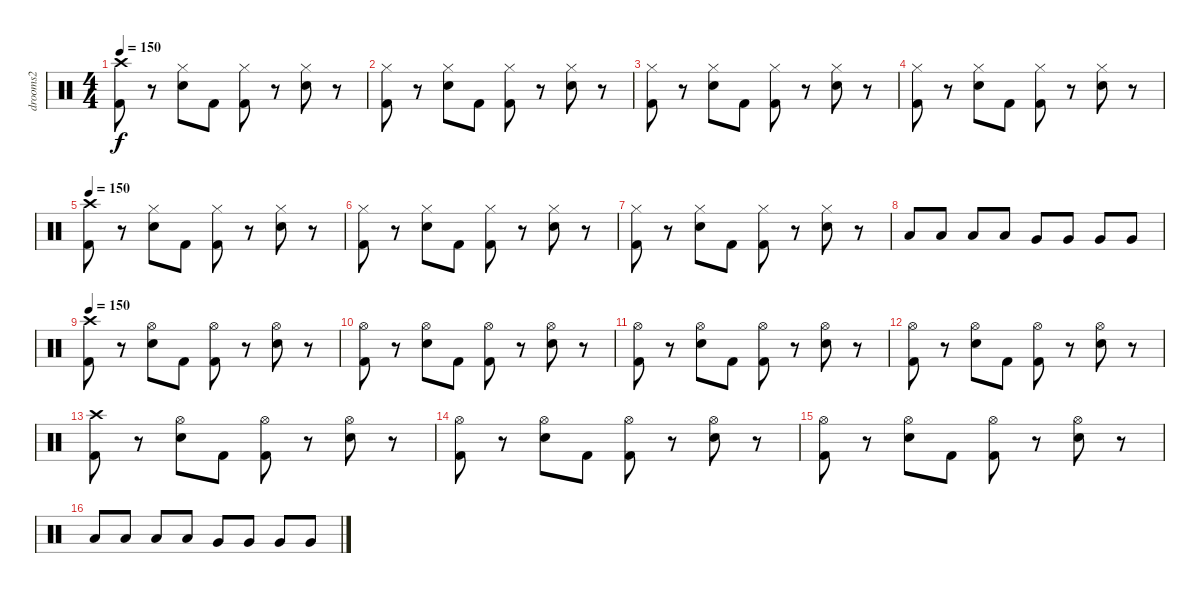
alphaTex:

\track ("drooms2" "drooms2") {instrument percussion}
\staff {score}
\articulation defaults
\ts (4 4)
\tempo 150
\clef neutral
\ks c
("Kick (hit) 2" "Crash high (hit)").8{dy f} r.8 ("Hi-Hat (closed)" "Snare (hit) 2").8 "Kick (hit) 2".8 ("Hi-Hat (closed)" "Kick (hit) 2").8 r.8 ("Hi-Hat (closed)" "Snare (hit) 2").8 r.8 |
("Kick (hit) 2" "Hi-Hat (closed)").8 r.8 ("Snare (hit) 2" "Hi-Hat (closed)").8 "Kick (hit) 2".8 ("Kick (hit) 2" "Hi-Hat (closed)").8 r.8 ("Snare (hit) 2" "Hi-Hat (closed)").8 r.8 |
("Kick (hit) 2" "Hi-Hat (closed)").8 r.8 ("Snare (hit) 2" "Hi-Hat (closed)").8 "Kick (hit) 2".8 ("Kick (hit) 2" "Hi-Hat (closed)").8 r.8 ("Snare (hit) 2" "Hi-Hat (closed)").8 r.8 |
("Kick (hit) 2" "Hi-Hat (closed)").8 r.8 ("Snare (hit) 2" "Hi-Hat (closed)").8 "Kick (hit) 2".8 ("Kick (hit) 2" "Hi-Hat (closed)").8 r.8 ("Snare (hit) 2" "Hi-Hat (closed)").8 r.8 |
\tempo 150
("Kick (hit) 2" "Crash high (hit)").8 r.8 ("Hi-Hat (closed)" "Snare (hit) 2").8 "Kick (hit) 2".8 ("Hi-Hat (closed)" "Kick (hit) 2").8 r.8 ("Hi-Hat (closed)" "Snare (hit) 2").8 r.8 |
("Kick (hit) 2" "Hi-Hat (closed)").8 r.8 ("Snare (hit) 2" "Hi-Hat (closed)").8 "Kick (hit) 2".8 ("Kick (hit) 2" "Hi-Hat (closed)").8 r.8 ("Snare (hit) 2" "Hi-Hat (closed)").8 r.8 |
("Kick (hit) 2" "Hi-Hat (closed)").8 r.8 ("Snare (hit) 2" "Hi-Hat (closed)").8 "Kick (hit) 2".8 ("Kick (hit) 2" "Hi-Hat (closed)").8 r.8 ("Snare (hit) 2" "Hi-Hat (closed)").8 r.8 |
"Low Tom (hit)".8 "Low Tom (hit)".8 "Low Tom (hit)".8 "Low Tom (hit)".8 "Very Low Tom (hit)".8 "Very Low Tom (hit)".8 "Very Low Tom (hit)".8 "Very Low Tom (hit)".8 |
\tempo 150
("Kick (hit) 2" "Crash high (hit)").8 r.8 ("Hi-Hat (open)" "Snare (hit) 2").8 "Kick (hit) 2".8 ("Hi-Hat (open)" "Kick (hit) 2").8 r.8 ("Hi-Hat (open)" "Snare (hit) 2").8 r.8 |
("Kick (hit) 2" "Hi-Hat (open)").8 r.8 ("Snare (hit) 2" "Hi-Hat (open)").8 "Kick (hit) 2".8 ("Kick (hit) 2" "Hi-Hat (open)").8 r.8 ("Snare (hit) 2" "Hi-Hat (open)").8 r.8 |
("Kick (hit) 2" "Hi-Hat (open)").8 r.8 ("Snare (hit) 2" "Hi-Hat (open)").8 "Kick (hit) 2".8 ("Kick (hit) 2" "Hi-Hat (open)").8 r.8 ("Snare (hit) 2" "Hi-Hat (open)").8 r.8 |
("Kick (hit) 2" "Hi-Hat (open)").8 r.8 ("Snare (hit) 2" "Hi-Hat (open)").8 "Kick (hit) 2".8 ("Kick (hit) 2" "Hi-Hat (open)").8 r.8 ("Snare (hit) 2" "Hi-Hat (open)").8 r.8 |
("Kick (hit) 2" "Crash high (hit)").8 r.8 ("Hi-Hat (open)" "Snare (hit) 2").8 "Kick (hit) 2".8 ("Hi-Hat (open)" "Kick (hit) 2").8 r.8 ("Hi-Hat (open)" "Snare (hit) 2").8 r.8 |
("Kick (hit) 2" "Hi-Hat (open)").8 r.8 ("Snare (hit) 2" "Hi-Hat (open)").8 "Kick (hit) 2".8 ("Kick (hit) 2" "Hi-Hat (open)").8 r.8 ("Snare (hit) 2" "Hi-Hat (open)").8 r.8 |
("Kick (hit) 2" "Hi-Hat (open)").8 r.8 ("Snare (hit) 2" "Hi-Hat (open)").8 "Kick (hit) 2".8 ("Kick (hit) 2" "Hi-Hat (open)").8 r.8 ("Snare (hit) 2" "Hi-Hat (open)").8 r.8 |
"Low Tom (hit)".8 "Low Tom (hit)".8 "Low Tom (hit)".8 "Low Tom (hit)".8 "Very Low Tom (hit)".8 "Very Low Tom (hit)".8 "Very Low Tom (hit)".8 "Very Low Tom (hit)".8
